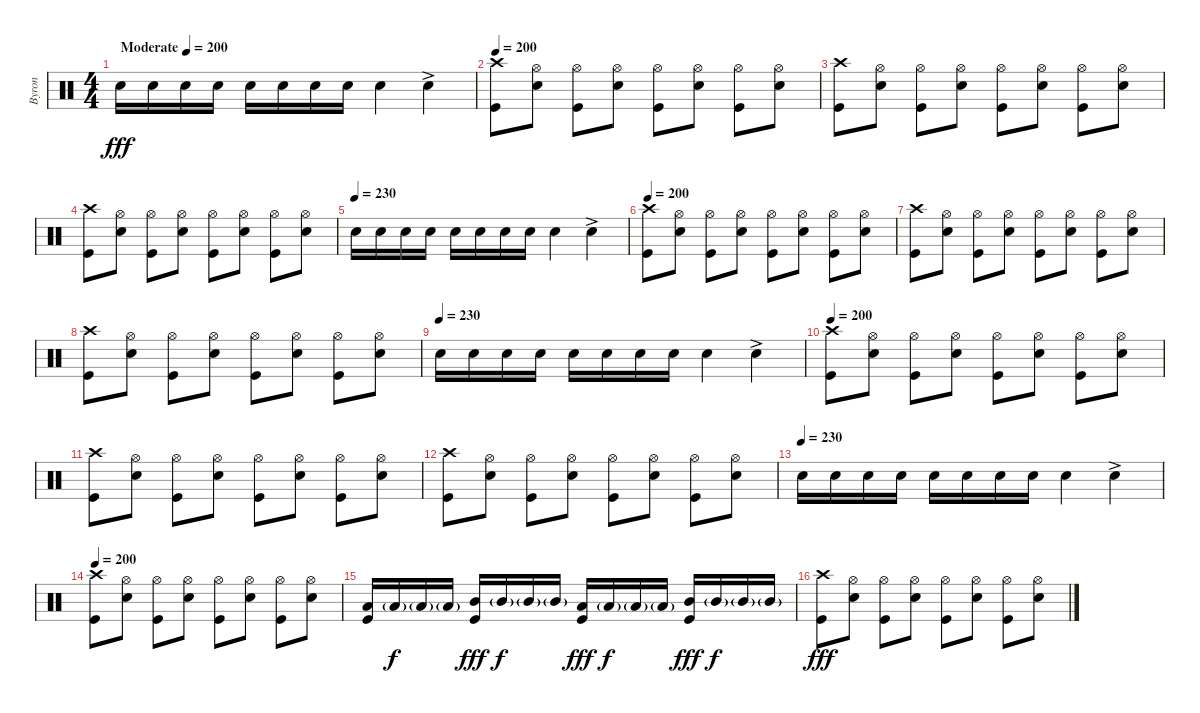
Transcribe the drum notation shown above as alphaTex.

\track ("Byron" "Byron") {instrument percussion}
\staff {score}
\articulation defaults
\ts (4 4)
\tempo (200 "Moderate")
\tempo 230
\tempo (200 "Moderate")
\clef neutral
\ks c "Electric Snare (hit)".16{dy fff} "Electric Snare (hit)".16 "Electric Snare (hit)".16 "Electric Snare (hit)".16 "Electric Snare (hit)".16 "Electric Snare (hit)".16 "Electric Snare (hit)".16 "Electric Snare (hit)".16 "Electric Snare (hit)".4 "Electric Snare (hit)"{ac}.4
|
\tempo 200
("Crash high (hit)" "Kick (hit)").8 ("Electric Snare (hit)" "Hi-Hat (open)").8 ("Kick (hit)" "Hi-Hat (open)").8 ("Electric Snare (hit)" "Hi-Hat (open)").8 ("Kick (hit)" "Hi-Hat (open)").8 ("Electric Snare (hit)" "Hi-Hat (open)").8 ("Kick (hit)" "Hi-Hat (open)").8 ("Electric Snare (hit)" "Hi-Hat (open)").8 |
("Crash high (hit)" "Kick (hit)").8 ("Electric Snare (hit)" "Hi-Hat (open)").8 ("Kick (hit)" "Hi-Hat (open)").8 ("Electric Snare (hit)" "Hi-Hat (open)").8 ("Kick (hit)" "Hi-Hat (open)").8 ("Electric Snare (hit)" "Hi-Hat (open)").8 ("Kick (hit)" "Hi-Hat (open)").8 ("Electric Snare (hit)" "Hi-Hat (open)").8 |
("Crash high (hit)" "Kick (hit)").8 ("Electric Snare (hit)" "Hi-Hat (open)").8 ("Kick (hit)" "Hi-Hat (open)").8 ("Electric Snare (hit)" "Hi-Hat (open)").8 ("Kick (hit)" "Hi-Hat (open)").8 ("Electric Snare (hit)" "Hi-Hat (open)").8 ("Kick (hit)" "Hi-Hat (open)").8 ("Electric Snare (hit)" "Hi-Hat (open)").8 |
\tempo (230)
"Electric Snare (hit)".16 "Electric Snare (hit)".16 "Electric Snare (hit)".16 "Electric Snare (hit)".16 "Electric Snare (hit)".16 "Electric Snare (hit)".16 "Electric Snare (hit)".16 "Electric Snare (hit)".16 "Electric Snare (hit)".4 "Electric Snare (hit)"{ac}.4 |
\tempo 200
("Crash high (hit)" "Kick (hit)").8 ("Electric Snare (hit)" "Hi-Hat (open)").8 ("Kick (hit)" "Hi-Hat (open)").8 ("Electric Snare (hit)" "Hi-Hat (open)").8 ("Kick (hit)" "Hi-Hat (open)").8 ("Electric Snare (hit)" "Hi-Hat (open)").8 ("Kick (hit)" "Hi-Hat (open)").8 ("Electric Snare (hit)" "Hi-Hat (open)").8 |
("Crash high (hit)" "Kick (hit)").8 ("Electric Snare (hit)" "Hi-Hat (open)").8 ("Kick (hit)" "Hi-Hat (open)").8 ("Electric Snare (hit)" "Hi-Hat (open)").8 ("Kick (hit)" "Hi-Hat (open)").8 ("Electric Snare (hit)" "Hi-Hat (open)").8 ("Kick (hit)" "Hi-Hat (open)").8 ("Electric Snare (hit)" "Hi-Hat (open)").8 |
("Crash high (hit)" "Kick (hit)").8 ("Electric Snare (hit)" "Hi-Hat (open)").8 ("Kick (hit)" "Hi-Hat (open)").8 ("Electric Snare (hit)" "Hi-Hat (open)").8 ("Kick (hit)" "Hi-Hat (open)").8 ("Electric Snare (hit)" "Hi-Hat (open)").8 ("Kick (hit)" "Hi-Hat (open)").8 ("Electric Snare (hit)" "Hi-Hat (open)").8 |
\tempo (230)
"Electric Snare (hit)".16 "Electric Snare (hit)".16 "Electric Snare (hit)".16 "Electric Snare (hit)".16 "Electric Snare (hit)".16 "Electric Snare (hit)".16 "Electric Snare (hit)".16 "Electric Snare (hit)".16 "Electric Snare (hit)".4 "Electric Snare (hit)"{ac}.4 |
\tempo 200
("Crash high (hit)" "Kick (hit)").8 ("Electric Snare (hit)" "Hi-Hat (open)").8 ("Kick (hit)" "Hi-Hat (open)").8 ("Electric Snare (hit)" "Hi-Hat (open)").8 ("Kick (hit)" "Hi-Hat (open)").8 ("Electric Snare (hit)" "Hi-Hat (open)").8 ("Kick (hit)" "Hi-Hat (open)").8 ("Electric Snare (hit)" "Hi-Hat (open)").8 |
("Crash high (hit)" "Kick (hit)").8 ("Electric Snare (hit)" "Hi-Hat (open)").8 ("Kick (hit)" "Hi-Hat (open)").8 ("Electric Snare (hit)" "Hi-Hat (open)").8 ("Kick (hit)" "Hi-Hat (open)").8 ("Electric Snare (hit)" "Hi-Hat (open)").8 ("Kick (hit)" "Hi-Hat (open)").8 ("Electric Snare (hit)" "Hi-Hat (open)").8 |
("Crash high (hit)" "Kick (hit)").8 ("Electric Snare (hit)" "Hi-Hat (open)").8 ("Kick (hit)" "Hi-Hat (open)").8 ("Electric Snare (hit)" "Hi-Hat (open)").8 ("Kick (hit)" "Hi-Hat (open)").8 ("Electric Snare (hit)" "Hi-Hat (open)").8 ("Kick (hit)" "Hi-Hat (open)").8 ("Electric Snare (hit)" "Hi-Hat (open)").8 |
\tempo (230)
"Electric Snare (hit)".16 "Electric Snare (hit)".16 "Electric Snare (hit)".16 "Electric Snare (hit)".16 "Electric Snare (hit)".16 "Electric Snare (hit)".16 "Electric Snare (hit)".16 "Electric Snare (hit)".16 "Electric Snare (hit)".4 "Electric Snare (hit)"{ac}.4 |
\tempo 200
("Crash high (hit)" "Kick (hit)").8 ("Electric Snare (hit)" "Hi-Hat (open)").8 ("Kick (hit)" "Hi-Hat (open)").8 ("Electric Snare (hit)" "Hi-Hat (open)").8 ("Kick (hit)" "Hi-Hat (open)").8 ("Electric Snare (hit)" "Hi-Hat (open)").8 ("Kick (hit)" "Hi-Hat (open)").8 ("Electric Snare (hit)" "Hi-Hat (open)").8 |
("Low Tom (hit)" "Kick (hit)").16 "Low Tom (hit)"{g}.16{dy f} "Low Tom (hit)"{g}.16 "Low Tom (hit)"{g}.16 ("Mid Tom (hit)" "Kick (hit)").16{dy fff} "Mid Tom (hit)"{g}.16{dy f} "Mid Tom (hit)"{g}.16 "Mid Tom (hit)"{g}.16 ("Low Tom (hit)" "Kick (hit)").16{dy fff} "Low Tom (hit)"{g}.16{dy f} "Low Tom (hit)"{g}.16 "Low Tom (hit)"{g}.16 ("Mid Tom (hit)" "Kick (hit)").16{dy fff} "Mid Tom (hit)"{g}.16{dy f} "Mid Tom (hit)"{g}.16 "Mid Tom (hit)"{g}.16 |
("Crash high (hit)" "Kick (hit)").8{dy fff} ("Electric Snare (hit)" "Hi-Hat (open)").8 ("Kick (hit)" "Hi-Hat (open)").8 ("Electric Snare (hit)" "Hi-Hat (open)").8 ("Kick (hit)" "Hi-Hat (open)").8 ("Electric Snare (hit)" "Hi-Hat (open)").8 ("Kick (hit)" "Hi-Hat (open)").8 ("Electric Snare (hit)" "Hi-Hat (open)").8
